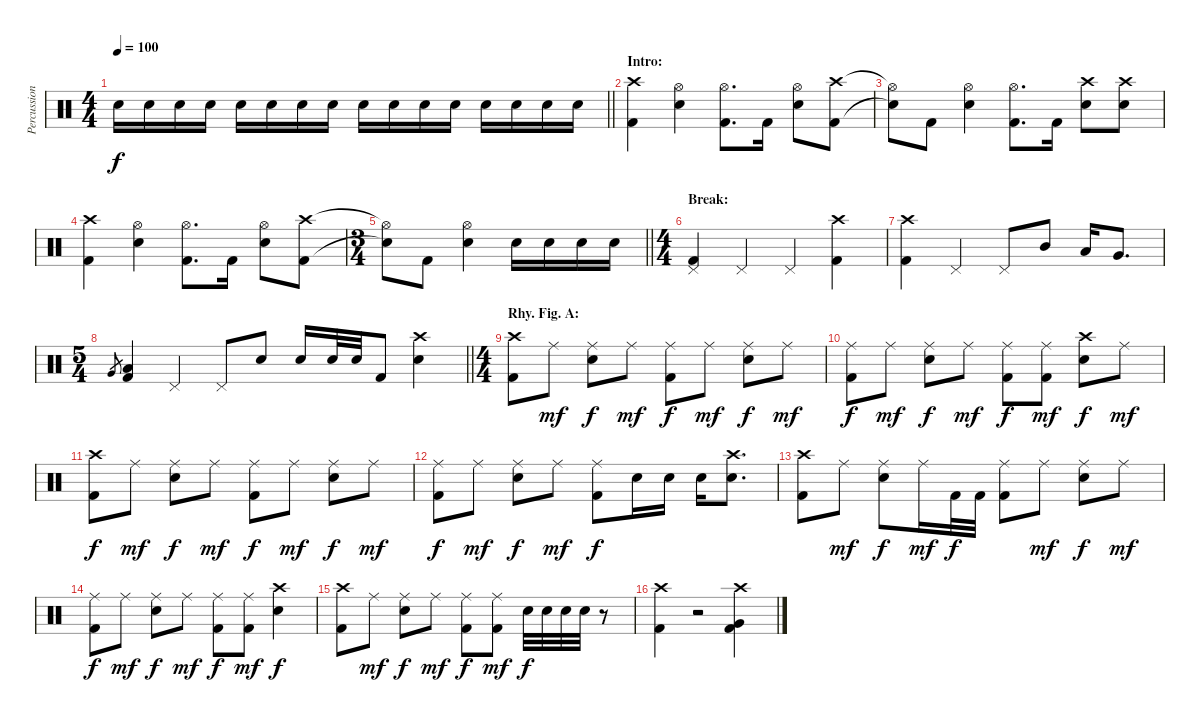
\track ("Percussion" "Percussion") {instrument percussion}
\staff {score}
\articulation defaults
\ts (4 4)
\tempo 100
\clef neutral
\barLineRight lightlight
\ks c "Electric Snare (hit)".16{dy f} "Electric Snare (hit)".16 "Electric Snare (hit)".16 "Electric Snare (hit)".16 "Electric Snare (hit)".16 "Electric Snare (hit)".16 "Electric Snare (hit)".16 "Electric Snare (hit)".16 "Electric Snare (hit)".16 "Electric Snare (hit)".16 "Electric Snare (hit)".16 "Electric Snare (hit)".16 "Electric Snare (hit)".16 "Electric Snare (hit)".16 "Electric Snare (hit)".16 "Electric Snare (hit)".16
|
\section ("" "Intro:")
("Crash high (hit)" "Kick (hit) 2").4 ("Hi-Hat (open)" "Electric Snare (hit)").4 ("Hi-Hat (open)" "Kick (hit) 2").8{d} "Kick (hit) 2".16 ("Hi-Hat (open)" "Electric Snare (hit)").8 ("Crash high (hit)" "Kick (hit) 2").8 |
("Hi-Hat (open)"{t} "Snare (hit)"{t}).8 "Kick (hit) 2".8 ("Hi-Hat (open)" "Electric Snare (hit)").4 ("Hi-Hat (open)" "Kick (hit) 2").8{d} "Kick (hit) 2".16 ("Crash high (hit)" "Electric Snare (hit)").8 ("Crash high (hit)" "Electric Snare (hit)").8 |
("Crash high (hit)" "Kick (hit) 2").4 ("Hi-Hat (open)" "Electric Snare (hit)").4 ("Hi-Hat (open)" "Kick (hit) 2").8{d} "Kick (hit) 2".16 ("Hi-Hat (open)" "Electric Snare (hit)").8 ("Crash high (hit)" "Kick (hit) 2").8 |
\ts (3 4)
\barLineRight lightlight
("Hi-Hat (open)"{t} "Snare (hit)"{t}).8 "Kick (hit) 2".8 ("Hi-Hat (open)" "Electric Snare (hit)").4 "Electric Snare (hit)".16 "Electric Snare (hit)".16 "Electric Snare (hit)".16 "Electric Snare (hit)".16 |
\ts (4 4)
\section ("" "Break:")
("Pedal Hi-Hat (hit)" "Kick (hit) 2").4 "Pedal Hi-Hat (hit)".4 "Pedal Hi-Hat (hit)".4 ("Crash high (hit)" "Kick (hit) 2").4 |
("Crash high (hit)" "Kick (hit) 2").4 "Pedal Hi-Hat (hit)".4 "Pedal Hi-Hat (hit)".8 "Mid Tom (hit)".8 "Low Tom (hit)".16 "Very Low Tom (hit)".8{d} |
\ts (5 4)
\barLineRight lightlight "Very Low Tom (hit)".8{gr}
("Low Floor Tom (hit)" "Kick (hit) 2").4 "Pedal Hi-Hat (hit)".4 "Pedal Hi-Hat (hit)".8 "Electric Snare (hit)".8 "Electric Snare (hit)".16 "Electric Snare (hit)".32 "Electric Snare (hit)".32 "Kick (hit) 2".8 ("Crash high (hit)" "Electric Snare (hit)").4 |
\ts (4 4)
\section ("" "Rhy. Fig. A:")
("Crash high (hit)" "Kick (hit) 2").8 "Ride (middle)".8{dy mf} ("Ride (middle)" "Electric Snare (hit)").8{dy f} "Ride (middle)".8{dy mf} ("Ride (middle)" "Kick (hit) 2").8{dy f} "Ride (middle)".8{dy mf} ("Ride (middle)" "Electric Snare (hit)").8{dy f} "Ride (middle)".8{dy mf} |
("Ride (middle)" "Kick (hit) 2").8{dy f} "Ride (middle)".8{dy mf} ("Ride (middle)" "Electric Snare (hit)").8{dy f} "Ride (middle)".8{dy mf} ("Ride (middle)" "Kick (hit) 2").8{dy f} ("Ride (middle)" "Kick (hit) 2").8{dy mf} ("Crash high (hit)" "Electric Snare (hit)").8{dy f} "Ride (middle)".8{dy mf} |
("Crash high (hit)" "Kick (hit) 2").8{dy f} "Ride (middle)".8{dy mf} ("Ride (middle)" "Electric Snare (hit)").8{dy f} "Ride (middle)".8{dy mf} ("Ride (middle)" "Kick (hit) 2").8{dy f} "Ride (middle)".8{dy mf} ("Ride (middle)" "Electric Snare (hit)").8{dy f} "Ride (middle)".8{dy mf} |
("Ride (middle)" "Kick (hit) 2").8{dy f} "Ride (middle)".8{dy mf} ("Ride (middle)" "Electric Snare (hit)").8{dy f} "Ride (middle)".8{dy mf} ("Ride (middle)" "Kick (hit) 2").8{dy f} "Electric Snare (hit)".16 "Electric Snare (hit)".16 "Electric Snare (hit)".16 ("Crash high (hit)" "Electric Snare (hit)").8{d} |
("Crash high (hit)" "Kick (hit) 2").8 "Ride (middle)".8{dy mf} ("Ride (middle)" "Electric Snare (hit)").8{dy f} "Ride (middle)".16{dy mf} "Kick (hit) 2".32{dy f} "Kick (hit) 2".32 ("Ride (middle)" "Kick (hit) 2").8 "Ride (middle)".8{dy mf} ("Ride (middle)" "Electric Snare (hit)").8{dy f} "Ride (middle)".8{dy mf} |
("Ride (middle)" "Kick (hit) 2").8{dy f} "Ride (middle)".8{dy mf} ("Ride (middle)" "Electric Snare (hit)").8{dy f} "Ride (middle)".8{dy mf} ("Ride (middle)" "Kick (hit) 2").8{dy f} ("Ride (middle)" "Kick (hit) 2").8{dy mf} ("Crash high (hit)" "Electric Snare (hit)").4{dy f} |
("Crash high (hit)" "Kick (hit) 2").8 "Ride (middle)".8{dy mf} ("Ride (middle)" "Electric Snare (hit)").8{dy f} "Ride (middle)".8{dy mf} ("Ride (middle)" "Kick (hit) 2").8{dy f} ("Ride (middle)" "Kick (hit) 2").8{dy mf} "Electric Snare (hit)".32{dy f} "Electric Snare (hit)".32 "Electric Snare (hit)".32 "Electric Snare (hit)".32 r.8 |
("Crash high (hit)" "Kick (hit) 2").4 r.2 ("Crash high (hit)" "Very Low Tom (hit)" "Kick (hit) 2").4
